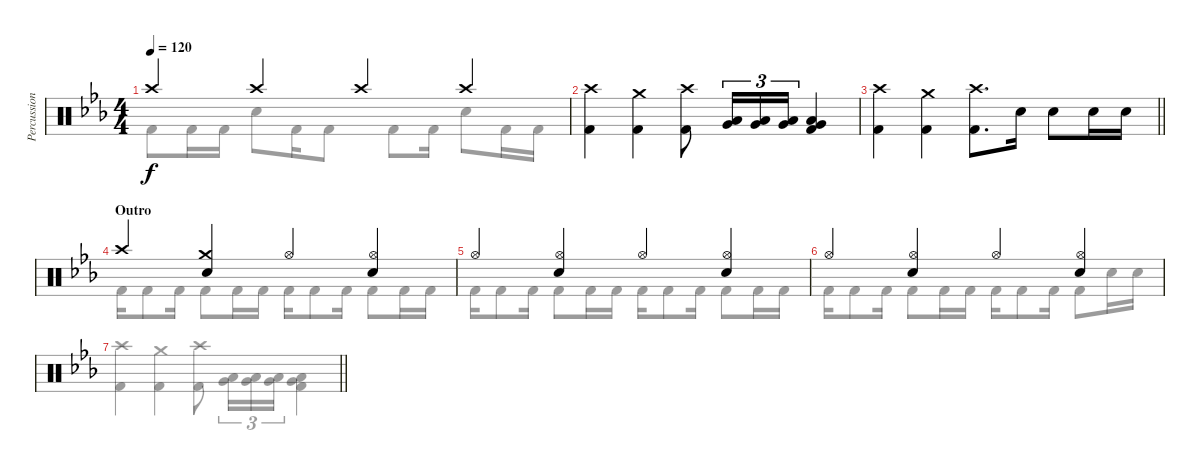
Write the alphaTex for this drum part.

\track ("Percussion" "Percussion") {instrument percussion}
\staff {score}
\articulation defaults
\voice
\ts (4 4)
\tempo 120
\clef neutral
\ks cminor "Crash high (hit)".4{dy f} "Crash high (hit)".4 "Crash high (hit)".4 "Crash high (hit)".4
|
("Crash high (hit)" "Kick (hit) 2").4 ("Crash medium (hit)" "Kick (hit) 2").4 ("Crash high (hit)" "Kick (hit) 2").8 ("Very Low Tom (hit)" "Low Tom (hit)").16{tu (3 2)} ("Very Low Tom (hit)" "Low Tom (hit)").16{tu (3 2)} ("Very Low Tom (hit)" "Low Tom (hit)").16{tu (3 2)} ("Very Low Tom (hit)" "Low Tom (hit)" "Kick (hit) 2").4 |
\barLineRight lightlight
("Crash high (hit)" "Kick (hit) 2").4 ("Crash medium (hit)" "Kick (hit) 2").4 ("Crash high (hit)" "Kick (hit) 2").8{d} "Snare (hit) 2".16 "Snare (hit) 2".8 "Snare (hit) 2".16 "Snare (hit) 2".16 |
\section ("" "Outro")
"Crash high (hit)".4 ("Crash medium (hit)" "Snare (hit) 2").4 "Hi-Hat (open)".4 ("Hi-Hat (open)" "Snare (hit) 2").4 |
"Hi-Hat (open)".4 ("Hi-Hat (open)" "Snare (hit) 2").4 "Hi-Hat (open)".4 ("Hi-Hat (open)" "Snare (hit) 2").4 |
"Hi-Hat (open)".4 ("Hi-Hat (open)" "Snare (hit) 2").4 "Hi-Hat (open)".4 ("Hi-Hat (open)" "Snare (hit) 2").4 |
\barLineRight lightlight
|
\voice
\clef neutral
\ottava regular
\simile none
\ks cminor "Kick (hit) 2".8{dy f} "Kick (hit) 2".16 "Kick (hit) 2".16 "Snare (hit) 2".8 "Kick (hit) 2".16 "Kick (hit) 2".8 "Kick (hit) 2".8 "Kick (hit) 2".16 "Snare (hit) 2".8 "Kick (hit) 2".16 "Kick (hit) 2".16
|
|
\barLineRight lightlight
|
"Kick (hit) 2".16 "Kick (hit) 2".8 "Kick (hit) 2".16 "Kick (hit) 2".8 "Kick (hit) 2".16 "Kick (hit) 2".16 "Kick (hit) 2".16 "Kick (hit) 2".8 "Kick (hit) 2".16 "Kick (hit) 2".8 "Kick (hit) 2".16 "Kick (hit) 2".16 |
"Kick (hit) 2".16 "Kick (hit) 2".8 "Kick (hit) 2".16 "Kick (hit) 2".8 "Kick (hit) 2".16 "Kick (hit) 2".16 "Kick (hit) 2".16 "Kick (hit) 2".8 "Kick (hit) 2".16 "Kick (hit) 2".8 "Kick (hit) 2".16 "Kick (hit) 2".16 |
"Kick (hit) 2".16 "Kick (hit) 2".8 "Kick (hit) 2".16 "Kick (hit) 2".8 "Kick (hit) 2".16 "Kick (hit) 2".16 "Kick (hit) 2".16 "Kick (hit) 2".8 "Kick (hit) 2".16 "Kick (hit) 2".8 "Snare (hit) 2".16 "Snare (hit) 2".16 |
\barLineRight lightlight
("Crash high (hit)" "Kick (hit) 2").4 ("Crash medium (hit)" "Kick (hit) 2").4 ("Crash high (hit)" "Kick (hit) 2").8 ("Very Low Tom (hit)" "Low Tom (hit)").16{tu (3 2)} ("Very Low Tom (hit)" "Low Tom (hit)").16{tu (3 2)} ("Very Low Tom (hit)" "Low Tom (hit)").16{tu (3 2)} ("Very Low Tom (hit)" "Low Tom (hit)" "Kick (hit) 2").4 |
